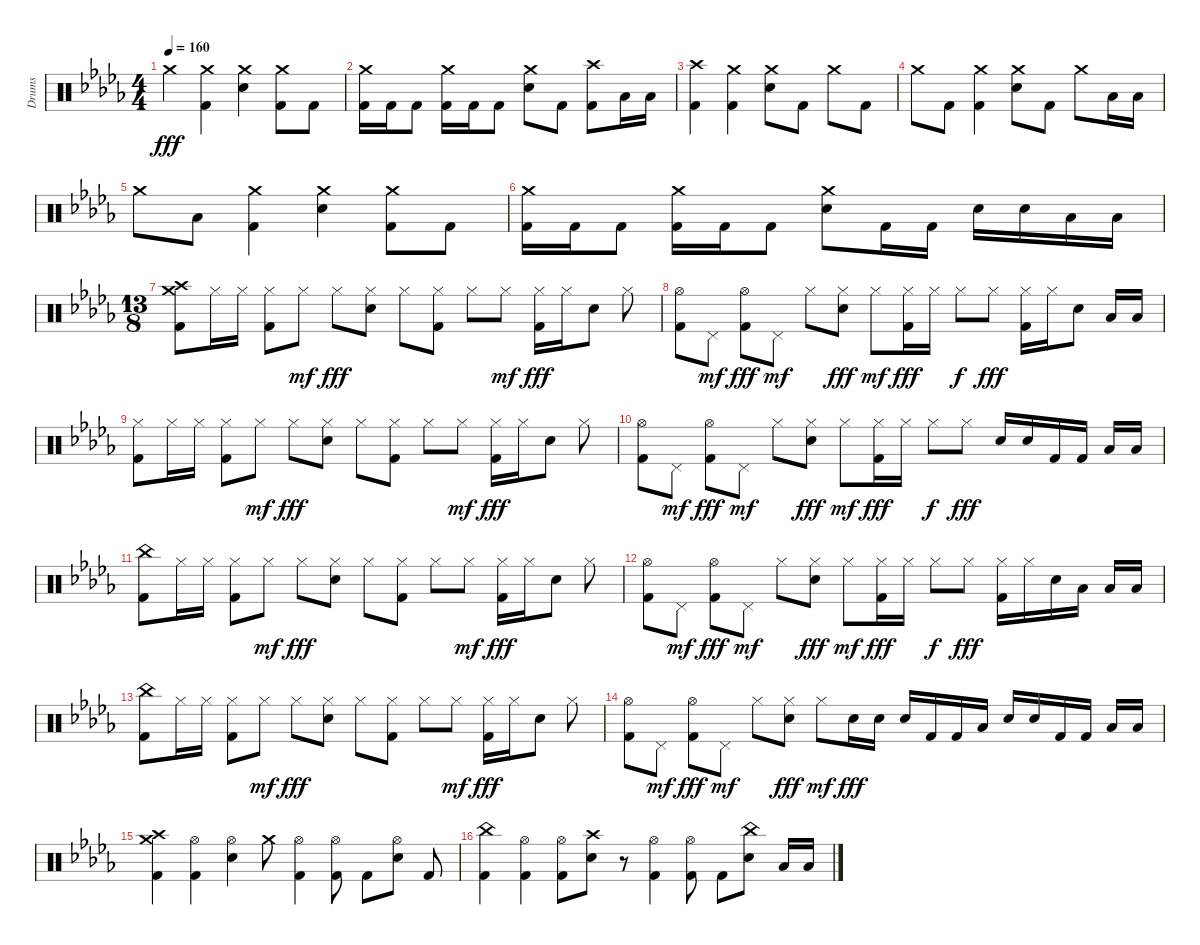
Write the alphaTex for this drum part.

\track ("Drums" "Drums") {instrument percussion}
\staff {score}
\articulation defaults
\ts (4 4)
\tempo 160
\clef neutral
\ks bbminor "Crash medium (hit)".4{dy fff}
("Crash medium (hit)" "Kick (hit) 2").4 ("Crash medium (hit)" "Snare (hit) 2").4 ("Crash medium (hit)" "Kick (hit) 2").8 "Kick (hit) 2".8 |
("Crash medium (hit)" "Kick (hit) 2").16 "Kick (hit) 2".16 "Kick (hit) 2".8 ("Crash medium (hit)" "Kick (hit) 2").16 "Kick (hit) 2".16 "Kick (hit) 2".8 ("Crash medium (hit)" "Snare (hit) 2").8 "Kick (hit) 2".8 ("Crash high (hit)" "Kick (hit) 2").8 "Low Floor Tom (hit)".16 "Low Floor Tom (hit)".16 |
("Crash high (hit)" "Kick (hit) 2").4 ("Crash medium (hit)" "Kick (hit) 2").4 ("Crash medium (hit)" "Snare (hit) 2").8 "Kick (hit) 2".8 "Crash medium (hit)".8 "Kick (hit) 2".8 |
"Crash medium (hit)".8 "Kick (hit) 2".8 ("Crash medium (hit)" "Kick (hit) 2").4 ("Crash medium (hit)" "Snare (hit) 2").8 "Kick (hit) 2".8 "Crash medium (hit)".8 "Low Floor Tom (hit)".16 "Low Floor Tom (hit)".16 |
"Crash medium (hit)".8 "Low Floor Tom (hit)".8 ("Crash medium (hit)" "Kick (hit) 2").4 ("Crash medium (hit)" "Snare (hit) 2").4 ("Crash medium (hit)" "Kick (hit) 2").8 "Kick (hit) 2".8 |
("Crash medium (hit)" "Kick (hit) 2").16 "Kick (hit) 2".16 "Kick (hit) 2".8 ("Crash medium (hit)" "Kick (hit) 2").16 "Kick (hit) 2".16 "Kick (hit) 2".8 ("Crash medium (hit)" "Snare (hit) 2").8 "Kick (hit) 2".16 "Kick (hit) 2".16 "Snare (hit) 2".16 "Snare (hit) 2".16 "Low Floor Tom (hit)".16 "Low Floor Tom (hit)".16 |
\ts (13 8)
("Crash high (hit)" "Crash medium (hit)" "Kick (hit) 2").8 "Hi-Hat (closed)".16 "Hi-Hat (closed)".16 ("Hi-Hat (closed)" "Kick (hit) 2").8 "Hi-Hat (closed)".8{dy mf} "Hi-Hat (closed)".8{dy fff} ("Hi-Hat (closed)" "Snare (hit) 2").8 "Hi-Hat (closed)".8 ("Hi-Hat (closed)" "Kick (hit) 2").8 "Hi-Hat (closed)".8 "Hi-Hat (closed)".8{dy mf} ("Hi-Hat (closed)" "Kick (hit) 2").16{dy fff} "Hi-Hat (closed)".16 "Snare (hit) 2".8 "Hi-Hat (closed)".8 |
("Hi-Hat (open)" "Kick (hit) 2").8 "Pedal Hi-Hat (hit)".8{dy mf} ("Hi-Hat (open)" "Kick (hit) 2").8{dy fff} "Pedal Hi-Hat (hit)".8{dy mf} "Hi-Hat (closed)".8 ("Hi-Hat (closed)" "Snare (hit) 2").8{dy fff} "Hi-Hat (closed)".8{dy mf} ("Hi-Hat (closed)" "Kick (hit) 2").16{dy fff} "Hi-Hat (closed)".16 "Hi-Hat (closed)".8{dy f} "Hi-Hat (closed)".8{dy fff} ("Hi-Hat (closed)" "Kick (hit) 2").16 "Hi-Hat (closed)".16 "Snare (hit) 2".8 "Low Floor Tom (hit)".16 "Low Floor Tom (hit)".16 |
("Hi-Hat (closed)" "Kick (hit) 2").8 "Hi-Hat (closed)".16 "Hi-Hat (closed)".16 ("Hi-Hat (closed)" "Kick (hit) 2").8 "Hi-Hat (closed)".8{dy mf} "Hi-Hat (closed)".8{dy fff} ("Hi-Hat (closed)" "Snare (hit) 2").8 "Hi-Hat (closed)".8 ("Hi-Hat (closed)" "Kick (hit) 2").8 "Hi-Hat (closed)".8 "Hi-Hat (closed)".8{dy mf} ("Hi-Hat (closed)" "Kick (hit) 2").16{dy fff} "Hi-Hat (closed)".16 "Snare (hit) 2".8 "Hi-Hat (closed)".8 |
("Hi-Hat (open)" "Kick (hit) 2").8 "Pedal Hi-Hat (hit)".8{dy mf} ("Hi-Hat (open)" "Kick (hit) 2").8{dy fff} "Pedal Hi-Hat (hit)".8{dy mf} "Hi-Hat (closed)".8 ("Hi-Hat (closed)" "Snare (hit) 2").8{dy fff} "Hi-Hat (closed)".8{dy mf} ("Hi-Hat (closed)" "Kick (hit) 2").16{dy fff} "Hi-Hat (closed)".16 "Hi-Hat (closed)".8{dy f} "Hi-Hat (closed)".8{dy fff} "Snare (hit) 2".16 "Snare (hit) 2".16 "Kick (hit) 2".16 "Kick (hit) 2".16 "Low Floor Tom (hit)".16 "Low Floor Tom (hit)".16 |
("China (hit)" "Kick (hit) 2").8 "Hi-Hat (closed)".16 "Hi-Hat (closed)".16 ("Hi-Hat (closed)" "Kick (hit) 2").8 "Hi-Hat (closed)".8{dy mf} "Hi-Hat (closed)".8{dy fff} ("Hi-Hat (closed)" "Snare (hit) 2").8 "Hi-Hat (closed)".8 ("Hi-Hat (closed)" "Kick (hit) 2").8 "Hi-Hat (closed)".8 "Hi-Hat (closed)".8{dy mf} ("Hi-Hat (closed)" "Kick (hit) 2").16{dy fff} "Hi-Hat (closed)".16 "Snare (hit) 2".8 "Hi-Hat (closed)".8 |
("Hi-Hat (open)" "Kick (hit) 2").8 "Pedal Hi-Hat (hit)".8{dy mf} ("Hi-Hat (open)" "Kick (hit) 2").8{dy fff} "Pedal Hi-Hat (hit)".8{dy mf} "Hi-Hat (closed)".8 ("Hi-Hat (closed)" "Snare (hit) 2").8{dy fff} "Hi-Hat (closed)".8{dy mf} ("Hi-Hat (closed)" "Kick (hit) 2").16{dy fff} "Hi-Hat (closed)".16 "Hi-Hat (closed)".8{dy f} "Hi-Hat (closed)".8{dy fff} ("Hi-Hat (closed)" "Kick (hit) 2").16 "Hi-Hat (closed)".16 "Snare (hit) 2".16 "Low Floor Tom (hit)".16 "Low Floor Tom (hit)".16 "Low Floor Tom (hit)".16 |
("China (hit)" "Kick (hit) 2").8 "Hi-Hat (closed)".16 "Hi-Hat (closed)".16 ("Hi-Hat (closed)" "Kick (hit) 2").8 "Hi-Hat (closed)".8{dy mf} "Hi-Hat (closed)".8{dy fff} ("Hi-Hat (closed)" "Snare (hit) 2").8 "Hi-Hat (closed)".8 ("Hi-Hat (closed)" "Kick (hit) 2").8 "Hi-Hat (closed)".8 "Hi-Hat (closed)".8{dy mf} ("Hi-Hat (closed)" "Kick (hit) 2").16{dy fff} "Hi-Hat (closed)".16 "Snare (hit) 2".8 "Hi-Hat (closed)".8 |
("Hi-Hat (open)" "Kick (hit) 2").8 "Pedal Hi-Hat (hit)".8{dy mf} ("Hi-Hat (open)" "Kick (hit) 2").8{dy fff} "Pedal Hi-Hat (hit)".8{dy mf} "Hi-Hat (closed)".8 ("Hi-Hat (closed)" "Snare (hit) 2").8{dy fff} "Hi-Hat (closed)".8{dy mf} "Snare (hit) 2".16{dy fff} "Snare (hit) 2".16 "Snare (hit) 2".16 "Kick (hit) 2".16 "Kick (hit) 2".16 "Low Floor Tom (hit)".16 "Snare (hit) 2".16 "Snare (hit) 2".16 "Kick (hit) 2".16 "Kick (hit) 2".16 "Low Floor Tom (hit)".16 "Low Floor Tom (hit)".16 |
("Crash high (hit)" "Crash medium (hit)" "Kick (hit) 2").4 ("Hi-Hat (open)" "Kick (hit) 2").4 ("Hi-Hat (open)" "Snare (hit) 2").4 "Crash medium (hit)".8 ("Hi-Hat (open)" "Kick (hit) 2").4 ("Hi-Hat (open)" "Kick (hit) 2").8 "Kick (hit) 2".8 ("Hi-Hat (open)" "Snare (hit) 2").8 "Kick (hit) 2".8 |
("China (hit)" "Kick (hit) 2").4 ("Hi-Hat (open)" "Kick (hit) 2").4 ("Hi-Hat (open)" "Kick (hit) 2").8 ("Crash high (hit)" "Snare (hit) 2").8 r.8 ("Hi-Hat (open)" "Kick (hit) 2").4 ("Hi-Hat (open)" "Kick (hit) 2").8 "Kick (hit) 2".8 ("China (hit)" "Snare (hit) 2").8 "Low Floor Tom (hit)".16 "Low Floor Tom (hit)".16
